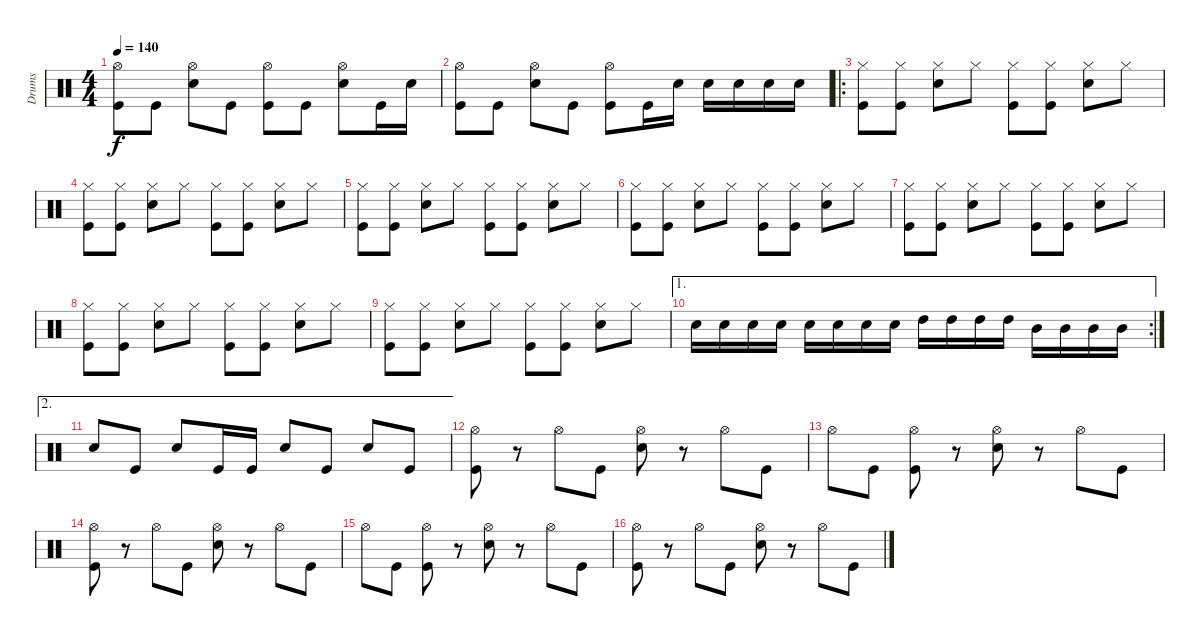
\track ("Drums" "Drums") {instrument percussion}
\staff {score}
\articulation defaults
\ts (4 4)
\tempo 140
\clef neutral
\ks c
("Hi-Hat (open)" "Kick (hit)").8{dy f} "Kick (hit)".8 ("Hi-Hat (open)" "Snare (hit) 2").8 "Kick (hit)".8 ("Hi-Hat (open)" "Kick (hit)").8 "Kick (hit)".8 ("Hi-Hat (open)" "Snare (hit) 2").8 "Kick (hit)".16 "Snare (hit) 2".16 |
("Hi-Hat (open)" "Kick (hit)").8 "Kick (hit)".8 ("Hi-Hat (open)" "Snare (hit) 2").8 "Kick (hit)".8 ("Hi-Hat (open)" "Kick (hit)").8 "Kick (hit)".16 "Snare (hit) 2".16 "Snare (hit) 2".16 "Snare (hit) 2".16 "Snare (hit) 2".16 "Snare (hit) 2".16 |
\ro
("Hi-Hat (closed)" "Kick (hit)").8 ("Hi-Hat (closed)" "Kick (hit)").8 ("Hi-Hat (closed)" "Snare (hit) 2").8 "Hi-Hat (closed)".8 ("Hi-Hat (closed)" "Kick (hit)").8 ("Hi-Hat (closed)" "Kick (hit)").8 ("Hi-Hat (closed)" "Snare (hit) 2").8 "Hi-Hat (closed)".8 |
("Hi-Hat (closed)" "Kick (hit)").8 ("Hi-Hat (closed)" "Kick (hit)").8 ("Hi-Hat (closed)" "Snare (hit) 2").8 "Hi-Hat (closed)".8 ("Hi-Hat (closed)" "Kick (hit)").8 ("Hi-Hat (closed)" "Kick (hit)").8 ("Hi-Hat (closed)" "Snare (hit) 2").8 "Hi-Hat (closed)".8 |
("Hi-Hat (closed)" "Kick (hit)").8 ("Hi-Hat (closed)" "Kick (hit)").8 ("Hi-Hat (closed)" "Snare (hit) 2").8 "Hi-Hat (closed)".8 ("Hi-Hat (closed)" "Kick (hit)").8 ("Hi-Hat (closed)" "Kick (hit)").8 ("Hi-Hat (closed)" "Snare (hit) 2").8 "Hi-Hat (closed)".8 |
("Hi-Hat (closed)" "Kick (hit)").8 ("Hi-Hat (closed)" "Kick (hit)").8 ("Hi-Hat (closed)" "Snare (hit) 2").8 "Hi-Hat (closed)".8 ("Hi-Hat (closed)" "Kick (hit)").8 ("Hi-Hat (closed)" "Kick (hit)").8 ("Hi-Hat (closed)" "Snare (hit) 2").8 "Hi-Hat (closed)".8 |
("Hi-Hat (closed)" "Kick (hit)").8 ("Hi-Hat (closed)" "Kick (hit)").8 ("Hi-Hat (closed)" "Snare (hit) 2").8 "Hi-Hat (closed)".8 ("Hi-Hat (closed)" "Kick (hit)").8 ("Hi-Hat (closed)" "Kick (hit)").8 ("Hi-Hat (closed)" "Snare (hit) 2").8 "Hi-Hat (closed)".8 |
("Hi-Hat (closed)" "Kick (hit)").8 ("Hi-Hat (closed)" "Kick (hit)").8 ("Hi-Hat (closed)" "Snare (hit) 2").8 "Hi-Hat (closed)".8 ("Hi-Hat (closed)" "Kick (hit)").8 ("Hi-Hat (closed)" "Kick (hit)").8 ("Hi-Hat (closed)" "Snare (hit) 2").8 "Hi-Hat (closed)".8 |
("Hi-Hat (closed)" "Kick (hit)").8 ("Hi-Hat (closed)" "Kick (hit)").8 ("Hi-Hat (closed)" "Snare (hit) 2").8 "Hi-Hat (closed)".8 ("Hi-Hat (closed)" "Kick (hit)").8 ("Hi-Hat (closed)" "Kick (hit)").8 ("Hi-Hat (closed)" "Snare (hit) 2").8 "Hi-Hat (closed)".8 |
\ae 1
\rc 2 "Snare (hit) 2".16 "Snare (hit) 2".16 "Snare (hit) 2".16 "Snare (hit) 2".16 "Snare (hit) 2".16 "Snare (hit) 2".16 "Snare (hit) 2".16 "Snare (hit) 2".16 "High Tom (hit)".16 "High Tom (hit)".16 "High Tom (hit)".16 "High Tom (hit)".16 "Mid Tom (hit)".16 "Mid Tom (hit)".16 "Mid Tom (hit)".16 "Mid Tom (hit)".16
|
\ae 2 "Snare (hit) 2".8 "Kick (hit)".8 "Snare (hit) 2".8 "Kick (hit)".16 "Kick (hit)".16 "Snare (hit) 2".8 "Kick (hit)".8 "Snare (hit) 2".8 "Kick (hit)".8
|
("Hi-Hat (open)" "Kick (hit)").8 r.8 "Hi-Hat (open)".8 "Kick (hit)".8 ("Hi-Hat (open)" "Snare (hit) 2").8 r.8 "Hi-Hat (open)".8 "Kick (hit)".8 |
"Hi-Hat (open)".8 "Kick (hit)".8 ("Hi-Hat (open)" "Kick (hit)").8 r.8 ("Hi-Hat (open)" "Snare (hit) 2").8 r.8 "Hi-Hat (open)".8 "Kick (hit)".8 |
("Hi-Hat (open)" "Kick (hit)").8 r.8 "Hi-Hat (open)".8 "Kick (hit)".8 ("Hi-Hat (open)" "Snare (hit) 2").8 r.8 "Hi-Hat (open)".8 "Kick (hit)".8 |
"Hi-Hat (open)".8 "Kick (hit)".8 ("Hi-Hat (open)" "Kick (hit)").8 r.8 ("Hi-Hat (open)" "Snare (hit) 2").8 r.8 "Hi-Hat (open)".8 "Kick (hit)".8 |
("Hi-Hat (open)" "Kick (hit)").8 r.8 "Hi-Hat (open)".8 "Kick (hit)".8 ("Hi-Hat (open)" "Snare (hit) 2").8 r.8 "Hi-Hat (open)".8 "Kick (hit)".8
